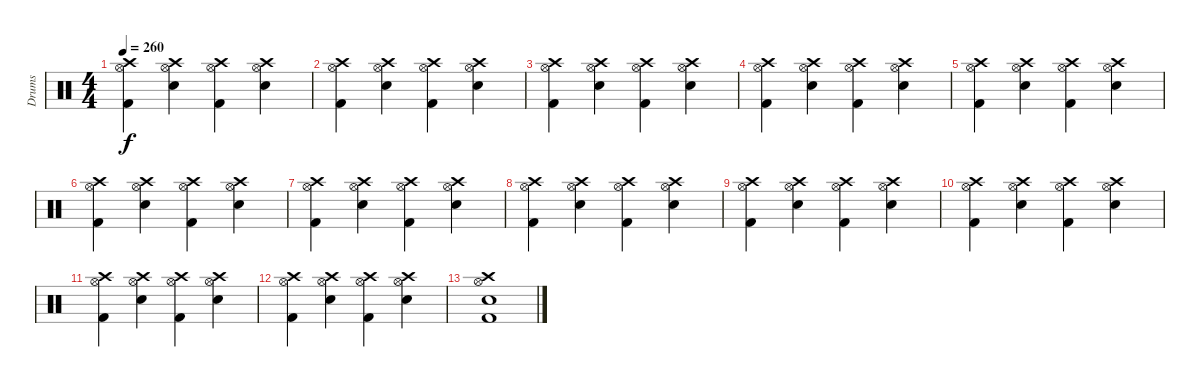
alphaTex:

\track ("Drums" "Drums") {instrument percussion}
\staff {score}
\articulation defaults
\ts (4 4)
\tempo 260
\clef neutral
\ks c
("Crash high (hit)" "Kick (hit) 2" "Hi-Hat (open)").4{dy f} ("Crash high (hit)" "Electric Snare (hit)" "Hi-Hat (open)").4 ("Crash high (hit)" "Kick (hit) 2" "Hi-Hat (open)").4 ("Crash high (hit)" "Electric Snare (hit)" "Hi-Hat (open)").4 |
("Crash high (hit)" "Kick (hit) 2" "Hi-Hat (open)").4 ("Crash high (hit)" "Electric Snare (hit)" "Hi-Hat (open)").4 ("Crash high (hit)" "Kick (hit) 2" "Hi-Hat (open)").4 ("Crash high (hit)" "Electric Snare (hit)" "Hi-Hat (open)").4 |
("Crash high (hit)" "Kick (hit) 2" "Hi-Hat (open)").4 ("Crash high (hit)" "Electric Snare (hit)" "Hi-Hat (open)").4 ("Crash high (hit)" "Kick (hit) 2" "Hi-Hat (open)").4 ("Crash high (hit)" "Electric Snare (hit)" "Hi-Hat (open)").4 |
("Crash high (hit)" "Kick (hit) 2" "Hi-Hat (open)").4 ("Crash high (hit)" "Electric Snare (hit)" "Hi-Hat (open)").4 ("Crash high (hit)" "Kick (hit) 2" "Hi-Hat (open)").4 ("Crash high (hit)" "Electric Snare (hit)" "Hi-Hat (open)").4 |
("Crash high (hit)" "Kick (hit) 2" "Hi-Hat (open)").4 ("Crash high (hit)" "Electric Snare (hit)" "Hi-Hat (open)").4 ("Crash high (hit)" "Kick (hit) 2" "Hi-Hat (open)").4 ("Crash high (hit)" "Electric Snare (hit)" "Hi-Hat (open)").4 |
("Crash high (hit)" "Kick (hit) 2" "Hi-Hat (open)").4 ("Crash high (hit)" "Electric Snare (hit)" "Hi-Hat (open)").4 ("Crash high (hit)" "Kick (hit) 2" "Hi-Hat (open)").4 ("Crash high (hit)" "Electric Snare (hit)" "Hi-Hat (open)").4 |
("Crash high (hit)" "Kick (hit) 2" "Hi-Hat (open)").4 ("Crash high (hit)" "Electric Snare (hit)" "Hi-Hat (open)").4 ("Crash high (hit)" "Kick (hit) 2" "Hi-Hat (open)").4 ("Crash high (hit)" "Electric Snare (hit)" "Hi-Hat (open)").4 |
("Crash high (hit)" "Kick (hit) 2" "Hi-Hat (open)").4 ("Crash high (hit)" "Electric Snare (hit)" "Hi-Hat (open)").4 ("Crash high (hit)" "Kick (hit) 2" "Hi-Hat (open)").4 ("Crash high (hit)" "Electric Snare (hit)" "Hi-Hat (open)").4 |
("Crash high (hit)" "Kick (hit) 2" "Hi-Hat (open)").4 ("Crash high (hit)" "Electric Snare (hit)" "Hi-Hat (open)").4 ("Crash high (hit)" "Kick (hit) 2" "Hi-Hat (open)").4 ("Crash high (hit)" "Electric Snare (hit)" "Hi-Hat (open)").4 |
("Crash high (hit)" "Kick (hit) 2" "Hi-Hat (open)").4 ("Crash high (hit)" "Electric Snare (hit)" "Hi-Hat (open)").4 ("Crash high (hit)" "Kick (hit) 2" "Hi-Hat (open)").4 ("Crash high (hit)" "Electric Snare (hit)" "Hi-Hat (open)").4 |
("Crash high (hit)" "Kick (hit) 2" "Hi-Hat (open)").4 ("Crash high (hit)" "Electric Snare (hit)" "Hi-Hat (open)").4 ("Crash high (hit)" "Kick (hit) 2" "Hi-Hat (open)").4 ("Crash high (hit)" "Electric Snare (hit)" "Hi-Hat (open)").4 |
("Crash high (hit)" "Kick (hit) 2" "Hi-Hat (open)").4 ("Crash high (hit)" "Electric Snare (hit)" "Hi-Hat (open)").4 ("Crash high (hit)" "Kick (hit) 2" "Hi-Hat (open)").4 ("Crash high (hit)" "Electric Snare (hit)" "Hi-Hat (open)").4 |
("Crash high (hit)" "Kick (hit) 2" "Electric Snare (hit)" "Hi-Hat (open)").1
